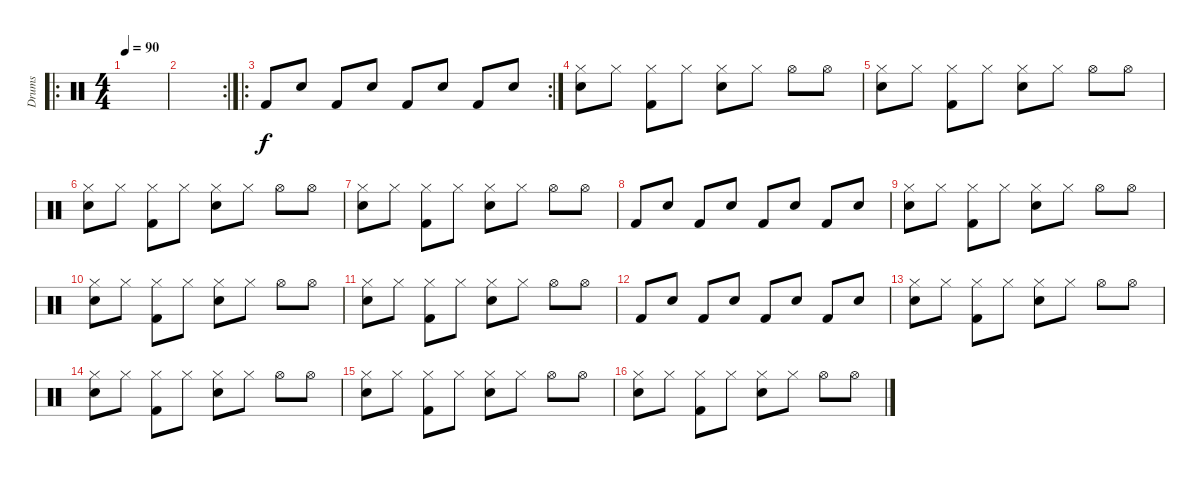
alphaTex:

\track ("Drums" "Drums") {instrument percussion}
\staff {score}
\articulation defaults
\ro
\ts (4 4)
\tempo 90
\clef neutral
\ks c
|
\rc 2
|
\ro
\rc 2 "Kick (hit) 2".8 "Snare (hit) 2".8 "Kick (hit) 2".8 "Snare (hit) 2".8 "Kick (hit) 2".8 "Snare (hit) 2".8 "Kick (hit) 2".8 "Snare (hit) 2".8
|
("Hi-Hat (closed)" "Snare (hit) 2").8 "Hi-Hat (closed)".8 ("Hi-Hat (closed)" "Kick (hit) 2").8 "Hi-Hat (closed)".8 ("Hi-Hat (closed)" "Snare (hit) 2").8 "Hi-Hat (closed)".8 "Hi-Hat (open)".8 "Hi-Hat (open)".8 |
("Hi-Hat (closed)" "Snare (hit) 2").8 "Hi-Hat (closed)".8 ("Hi-Hat (closed)" "Kick (hit) 2").8 "Hi-Hat (closed)".8 ("Hi-Hat (closed)" "Snare (hit) 2").8 "Hi-Hat (closed)".8 "Hi-Hat (open)".8 "Hi-Hat (open)".8 |
("Hi-Hat (closed)" "Snare (hit) 2").8 "Hi-Hat (closed)".8 ("Hi-Hat (closed)" "Kick (hit) 2").8 "Hi-Hat (closed)".8 ("Hi-Hat (closed)" "Snare (hit) 2").8 "Hi-Hat (closed)".8 "Hi-Hat (open)".8 "Hi-Hat (open)".8 |
("Hi-Hat (closed)" "Snare (hit) 2").8 "Hi-Hat (closed)".8 ("Hi-Hat (closed)" "Kick (hit) 2").8 "Hi-Hat (closed)".8 ("Hi-Hat (closed)" "Snare (hit) 2").8 "Hi-Hat (closed)".8 "Hi-Hat (open)".8 "Hi-Hat (open)".8 |
"Kick (hit) 2".8 "Snare (hit) 2".8 "Kick (hit) 2".8 "Snare (hit) 2".8 "Kick (hit) 2".8 "Snare (hit) 2".8 "Kick (hit) 2".8 "Snare (hit) 2".8 |
("Hi-Hat (closed)" "Snare (hit) 2").8 "Hi-Hat (closed)".8 ("Hi-Hat (closed)" "Kick (hit) 2").8 "Hi-Hat (closed)".8 ("Hi-Hat (closed)" "Snare (hit) 2").8 "Hi-Hat (closed)".8 "Hi-Hat (open)".8 "Hi-Hat (open)".8 |
("Hi-Hat (closed)" "Snare (hit) 2").8 "Hi-Hat (closed)".8 ("Hi-Hat (closed)" "Kick (hit) 2").8 "Hi-Hat (closed)".8 ("Hi-Hat (closed)" "Snare (hit) 2").8 "Hi-Hat (closed)".8 "Hi-Hat (open)".8 "Hi-Hat (open)".8 |
("Hi-Hat (closed)" "Snare (hit) 2").8 "Hi-Hat (closed)".8 ("Hi-Hat (closed)" "Kick (hit) 2").8 "Hi-Hat (closed)".8 ("Hi-Hat (closed)" "Snare (hit) 2").8 "Hi-Hat (closed)".8 "Hi-Hat (open)".8 "Hi-Hat (open)".8 |
"Kick (hit) 2".8 "Snare (hit) 2".8 "Kick (hit) 2".8 "Snare (hit) 2".8 "Kick (hit) 2".8 "Snare (hit) 2".8 "Kick (hit) 2".8 "Snare (hit) 2".8 |
("Hi-Hat (closed)" "Snare (hit) 2").8 "Hi-Hat (closed)".8 ("Hi-Hat (closed)" "Kick (hit) 2").8 "Hi-Hat (closed)".8 ("Hi-Hat (closed)" "Snare (hit) 2").8 "Hi-Hat (closed)".8 "Hi-Hat (open)".8 "Hi-Hat (open)".8 |
("Hi-Hat (closed)" "Snare (hit) 2").8 "Hi-Hat (closed)".8 ("Hi-Hat (closed)" "Kick (hit) 2").8 "Hi-Hat (closed)".8 ("Hi-Hat (closed)" "Snare (hit) 2").8 "Hi-Hat (closed)".8 "Hi-Hat (open)".8 "Hi-Hat (open)".8 |
("Hi-Hat (closed)" "Snare (hit) 2").8 "Hi-Hat (closed)".8 ("Hi-Hat (closed)" "Kick (hit) 2").8 "Hi-Hat (closed)".8 ("Hi-Hat (closed)" "Snare (hit) 2").8 "Hi-Hat (closed)".8 "Hi-Hat (open)".8 "Hi-Hat (open)".8 |
("Hi-Hat (closed)" "Snare (hit) 2").8 "Hi-Hat (closed)".8 ("Hi-Hat (closed)" "Kick (hit) 2").8 "Hi-Hat (closed)".8 ("Hi-Hat (closed)" "Snare (hit) 2").8 "Hi-Hat (closed)".8 "Hi-Hat (open)".8 "Hi-Hat (open)".8
